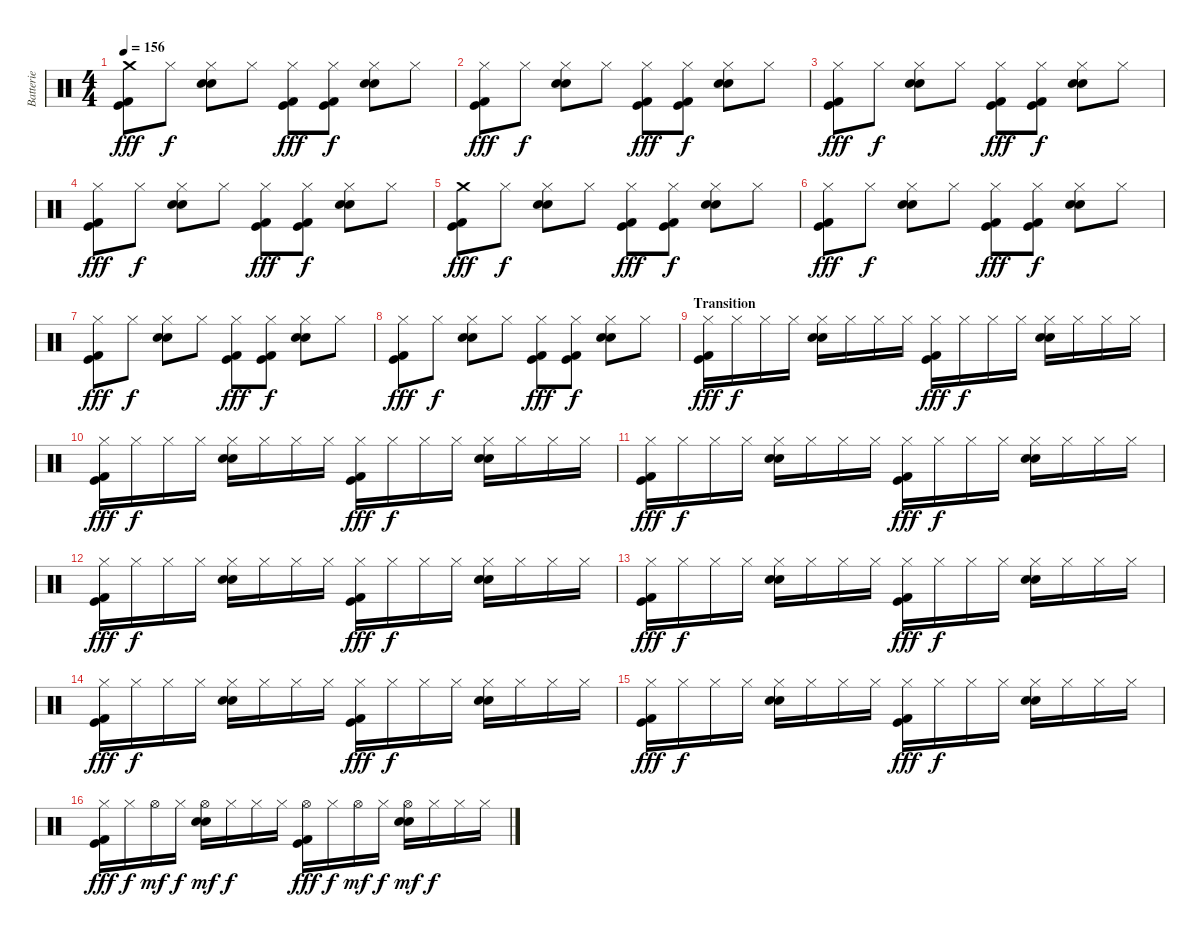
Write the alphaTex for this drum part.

\track ("Batterie" "Batterie") {instrument percussion}
\staff {score}
\articulation defaults
\ts (4 4)
\tempo 156
\clef neutral
\ks c
("Crash medium (hit)" "Kick (hit)" "Kick (hit) 2").8{dy fff} "Hi-Hat (closed)".8{dy f} ("Hi-Hat (closed)" "Snare (hit) 2" "Electric Snare (hit)").8 "Hi-Hat (closed)".8 ("Hi-Hat (closed)" "Kick (hit)" "Kick (hit) 2").8{dy fff} ("Hi-Hat (closed)" "Kick (hit)" "Kick (hit) 2").8{dy f} ("Hi-Hat (closed)" "Snare (hit) 2" "Electric Snare (hit)").8 "Hi-Hat (closed)".8 |
("Hi-Hat (closed)" "Kick (hit)" "Kick (hit) 2").8{dy fff} "Hi-Hat (closed)".8{dy f} ("Hi-Hat (closed)" "Snare (hit) 2" "Electric Snare (hit)").8 "Hi-Hat (closed)".8 ("Hi-Hat (closed)" "Kick (hit)" "Kick (hit) 2").8{dy fff} ("Hi-Hat (closed)" "Kick (hit)" "Kick (hit) 2").8{dy f} ("Hi-Hat (closed)" "Snare (hit) 2" "Electric Snare (hit)").8 "Hi-Hat (closed)".8 |
("Hi-Hat (closed)" "Kick (hit)" "Kick (hit) 2").8{dy fff} "Hi-Hat (closed)".8{dy f} ("Hi-Hat (closed)" "Snare (hit) 2" "Electric Snare (hit)").8 "Hi-Hat (closed)".8 ("Hi-Hat (closed)" "Kick (hit)" "Kick (hit) 2").8{dy fff} ("Hi-Hat (closed)" "Kick (hit)" "Kick (hit) 2").8{dy f} ("Hi-Hat (closed)" "Snare (hit) 2" "Electric Snare (hit)").8 "Hi-Hat (closed)".8 |
("Hi-Hat (closed)" "Kick (hit)" "Kick (hit) 2").8{dy fff} "Hi-Hat (closed)".8{dy f} ("Hi-Hat (closed)" "Snare (hit) 2" "Electric Snare (hit)").8 "Hi-Hat (closed)".8 ("Hi-Hat (closed)" "Kick (hit)" "Kick (hit) 2").8{dy fff} ("Hi-Hat (closed)" "Kick (hit)" "Kick (hit) 2").8{dy f} ("Hi-Hat (closed)" "Snare (hit) 2" "Electric Snare (hit)").8 "Hi-Hat (closed)".8 |
("Crash medium (hit)" "Kick (hit)" "Kick (hit) 2").8{dy fff} "Hi-Hat (closed)".8{dy f} ("Hi-Hat (closed)" "Snare (hit) 2" "Electric Snare (hit)").8 "Hi-Hat (closed)".8 ("Hi-Hat (closed)" "Kick (hit)" "Kick (hit) 2").8{dy fff} ("Hi-Hat (closed)" "Kick (hit)" "Kick (hit) 2").8{dy f} ("Hi-Hat (closed)" "Snare (hit) 2" "Electric Snare (hit)").8 "Hi-Hat (closed)".8 |
("Hi-Hat (closed)" "Kick (hit)" "Kick (hit) 2").8{dy fff} "Hi-Hat (closed)".8{dy f} ("Hi-Hat (closed)" "Snare (hit) 2" "Electric Snare (hit)").8 "Hi-Hat (closed)".8 ("Hi-Hat (closed)" "Kick (hit)" "Kick (hit) 2").8{dy fff} ("Hi-Hat (closed)" "Kick (hit)" "Kick (hit) 2").8{dy f} ("Hi-Hat (closed)" "Snare (hit) 2" "Electric Snare (hit)").8 "Hi-Hat (closed)".8 |
("Hi-Hat (closed)" "Kick (hit)" "Kick (hit) 2").8{dy fff} "Hi-Hat (closed)".8{dy f} ("Hi-Hat (closed)" "Snare (hit) 2" "Electric Snare (hit)").8 "Hi-Hat (closed)".8 ("Hi-Hat (closed)" "Kick (hit)" "Kick (hit) 2").8{dy fff} ("Hi-Hat (closed)" "Kick (hit)" "Kick (hit) 2").8{dy f} ("Hi-Hat (closed)" "Snare (hit) 2" "Electric Snare (hit)").8 "Hi-Hat (closed)".8 |
("Hi-Hat (closed)" "Kick (hit)" "Kick (hit) 2").8{dy fff} "Hi-Hat (closed)".8{dy f} ("Hi-Hat (closed)" "Snare (hit) 2" "Electric Snare (hit)").8 "Hi-Hat (closed)".8 ("Hi-Hat (closed)" "Kick (hit)" "Kick (hit) 2").8{dy fff} ("Hi-Hat (closed)" "Kick (hit)" "Kick (hit) 2").8{dy f} ("Hi-Hat (closed)" "Snare (hit) 2" "Electric Snare (hit)").8 "Hi-Hat (closed)".8 |
\section ("" "Transition")
("Hi-Hat (closed)" "Kick (hit)" "Kick (hit) 2").16{dy fff} "Hi-Hat (closed)".16{dy f} "Hi-Hat (closed)".16 "Hi-Hat (closed)".16 ("Hi-Hat (closed)" "Snare (hit) 2" "Electric Snare (hit)").16 "Hi-Hat (closed)".16 "Hi-Hat (closed)".16 "Hi-Hat (closed)".16 ("Hi-Hat (closed)" "Kick (hit)" "Kick (hit) 2").16{dy fff} "Hi-Hat (closed)".16{dy f} "Hi-Hat (closed)".16 "Hi-Hat (closed)".16 ("Hi-Hat (closed)" "Snare (hit) 2" "Electric Snare (hit)").16 "Hi-Hat (closed)".16 "Hi-Hat (closed)".16 "Hi-Hat (closed)".16 |
("Hi-Hat (closed)" "Kick (hit)" "Kick (hit) 2").16{dy fff} "Hi-Hat (closed)".16{dy f} "Hi-Hat (closed)".16 "Hi-Hat (closed)".16 ("Hi-Hat (closed)" "Snare (hit) 2" "Electric Snare (hit)").16 "Hi-Hat (closed)".16 "Hi-Hat (closed)".16 "Hi-Hat (closed)".16 ("Hi-Hat (closed)" "Kick (hit)" "Kick (hit) 2").16{dy fff} "Hi-Hat (closed)".16{dy f} "Hi-Hat (closed)".16 "Hi-Hat (closed)".16 ("Hi-Hat (closed)" "Snare (hit) 2" "Electric Snare (hit)").16 "Hi-Hat (closed)".16 "Hi-Hat (closed)".16 "Hi-Hat (closed)".16 |
("Hi-Hat (closed)" "Kick (hit)" "Kick (hit) 2").16{dy fff} "Hi-Hat (closed)".16{dy f} "Hi-Hat (closed)".16 "Hi-Hat (closed)".16 ("Hi-Hat (closed)" "Snare (hit) 2" "Electric Snare (hit)").16 "Hi-Hat (closed)".16 "Hi-Hat (closed)".16 "Hi-Hat (closed)".16 ("Hi-Hat (closed)" "Kick (hit)" "Kick (hit) 2").16{dy fff} "Hi-Hat (closed)".16{dy f} "Hi-Hat (closed)".16 "Hi-Hat (closed)".16 ("Hi-Hat (closed)" "Snare (hit) 2" "Electric Snare (hit)").16 "Hi-Hat (closed)".16 "Hi-Hat (closed)".16 "Hi-Hat (closed)".16 |
("Hi-Hat (closed)" "Kick (hit)" "Kick (hit) 2").16{dy fff} "Hi-Hat (closed)".16{dy f} "Hi-Hat (closed)".16 "Hi-Hat (closed)".16 ("Hi-Hat (closed)" "Snare (hit) 2" "Electric Snare (hit)").16 "Hi-Hat (closed)".16 "Hi-Hat (closed)".16 "Hi-Hat (closed)".16 ("Hi-Hat (closed)" "Kick (hit)" "Kick (hit) 2").16{dy fff} "Hi-Hat (closed)".16{dy f} "Hi-Hat (closed)".16 "Hi-Hat (closed)".16 ("Hi-Hat (closed)" "Snare (hit) 2" "Electric Snare (hit)").16 "Hi-Hat (closed)".16 "Hi-Hat (closed)".16 "Hi-Hat (closed)".16 |
("Hi-Hat (closed)" "Kick (hit)" "Kick (hit) 2").16{dy fff} "Hi-Hat (closed)".16{dy f} "Hi-Hat (closed)".16 "Hi-Hat (closed)".16 ("Hi-Hat (closed)" "Snare (hit) 2" "Electric Snare (hit)").16 "Hi-Hat (closed)".16 "Hi-Hat (closed)".16 "Hi-Hat (closed)".16 ("Hi-Hat (closed)" "Kick (hit)" "Kick (hit) 2").16{dy fff} "Hi-Hat (closed)".16{dy f} "Hi-Hat (closed)".16 "Hi-Hat (closed)".16 ("Hi-Hat (closed)" "Snare (hit) 2" "Electric Snare (hit)").16 "Hi-Hat (closed)".16 "Hi-Hat (closed)".16 "Hi-Hat (closed)".16 |
("Hi-Hat (closed)" "Kick (hit)" "Kick (hit) 2").16{dy fff} "Hi-Hat (closed)".16{dy f} "Hi-Hat (closed)".16 "Hi-Hat (closed)".16 ("Hi-Hat (closed)" "Snare (hit) 2" "Electric Snare (hit)").16 "Hi-Hat (closed)".16 "Hi-Hat (closed)".16 "Hi-Hat (closed)".16 ("Hi-Hat (closed)" "Kick (hit)" "Kick (hit) 2").16{dy fff} "Hi-Hat (closed)".16{dy f} "Hi-Hat (closed)".16 "Hi-Hat (closed)".16 ("Hi-Hat (closed)" "Snare (hit) 2" "Electric Snare (hit)").16 "Hi-Hat (closed)".16 "Hi-Hat (closed)".16 "Hi-Hat (closed)".16 |
("Hi-Hat (closed)" "Kick (hit)" "Kick (hit) 2").16{dy fff} "Hi-Hat (closed)".16{dy f} "Hi-Hat (closed)".16 "Hi-Hat (closed)".16 ("Hi-Hat (closed)" "Snare (hit) 2" "Electric Snare (hit)").16 "Hi-Hat (closed)".16 "Hi-Hat (closed)".16 "Hi-Hat (closed)".16 ("Hi-Hat (closed)" "Kick (hit)" "Kick (hit) 2").16{dy fff} "Hi-Hat (closed)".16{dy f} "Hi-Hat (closed)".16 "Hi-Hat (closed)".16 ("Hi-Hat (closed)" "Snare (hit) 2" "Electric Snare (hit)").16 "Hi-Hat (closed)".16 "Hi-Hat (closed)".16 "Hi-Hat (closed)".16 |
("Hi-Hat (closed)" "Kick (hit)" "Kick (hit) 2").16{dy fff} "Hi-Hat (closed)".16{dy f} "Hi-Hat (open)".16{dy mf} "Hi-Hat (closed)".16{dy f} ("Hi-Hat (open)" "Snare (hit) 2" "Electric Snare (hit)").16{dy mf} "Hi-Hat (closed)".16{dy f} "Hi-Hat (closed)".16 "Hi-Hat (closed)".16 ("Hi-Hat (open)" "Kick (hit)" "Kick (hit) 2").16{dy fff} "Hi-Hat (closed)".16{dy f} "Hi-Hat (open)".16{dy mf} "Hi-Hat (closed)".16{dy f} ("Hi-Hat (open)" "Snare (hit) 2" "Electric Snare (hit)").16{dy mf} "Hi-Hat (closed)".16{dy f} "Hi-Hat (closed)".16 "Hi-Hat (closed)".16
